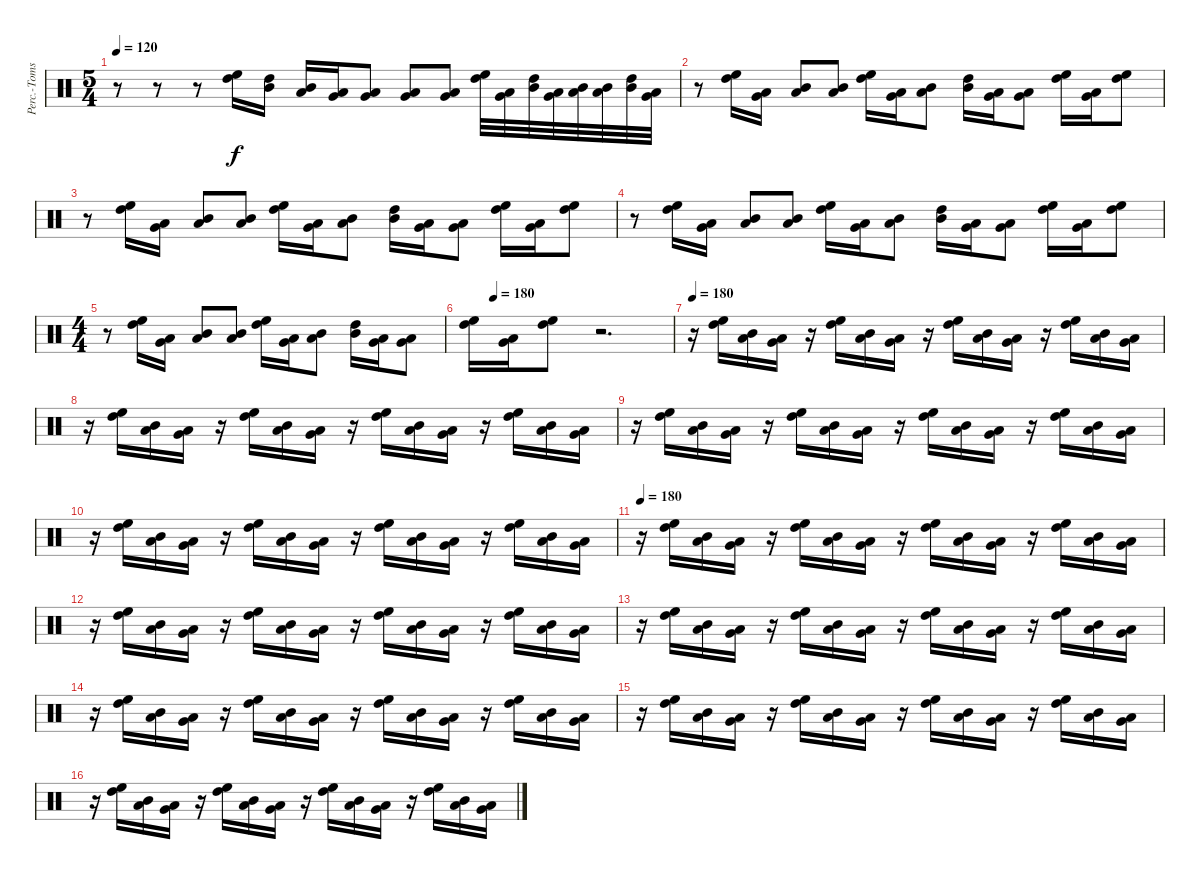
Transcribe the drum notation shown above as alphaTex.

\track ("Perc.-Toms " "Perc.-Toms") {instrument percussion}
\staff {score}
\articulation defaults
\ts (5 4)
\tempo 120
\clef neutral
\ks c
r.8{dy f} r.8 r.8 ("High Floor Tom (hit)" "High Tom (hit)").16 ("High Tom (hit)" "Mid Tom (hit)").16 ("Mid Tom (hit)" "Low Tom (hit)").16 ("Low Tom (hit)" "Very Low Tom (hit)").16 ("Very Low Tom (hit)" "Low Floor Tom (hit)").8 ("Very Low Tom (hit)" "Low Floor Tom (hit)").8 ("Very Low Tom (hit)" "Low Floor Tom (hit)").8 ("High Floor Tom (hit)" "High Tom (hit)").32 ("Very Low Tom (hit)" "Low Floor Tom (hit)").32 ("High Tom (hit)" "Mid Tom (hit)").32 ("Low Tom (hit)" "Very Low Tom (hit)").32 ("Mid Tom (hit)" "Low Tom (hit)").32 ("Low Tom (hit)" "Mid Tom (hit)").32 ("High Tom (hit)" "Mid Tom (hit)").32 ("Very Low Tom (hit)" "Low Floor Tom (hit)").32 |
r.8 ("High Floor Tom (hit)" "High Tom (hit)").16 ("Very Low Tom (hit)" "Low Floor Tom (hit)").16 ("Mid Tom (hit)" "Low Tom (hit)").8 ("Mid Tom (hit)" "Low Tom (hit)").8 ("High Floor Tom (hit)" "High Tom (hit)").16 ("Low Tom (hit)" "Very Low Tom (hit)").16 ("Mid Tom (hit)" "Low Tom (hit)").8 ("High Tom (hit)" "Mid Tom (hit)").16 ("Very Low Tom (hit)" "Low Floor Tom (hit)").16 ("Low Tom (hit)" "Very Low Tom (hit)").8 ("High Floor Tom (hit)" "High Tom (hit)").16 ("Very Low Tom (hit)" "Low Floor Tom (hit)").16 ("High Floor Tom (hit)" "High Tom (hit)").8 |
r.8 ("High Floor Tom (hit)" "High Tom (hit)").16 ("Very Low Tom (hit)" "Low Floor Tom (hit)").16 ("Mid Tom (hit)" "Low Tom (hit)").8 ("Mid Tom (hit)" "Low Tom (hit)").8 ("High Floor Tom (hit)" "High Tom (hit)").16 ("Low Tom (hit)" "Very Low Tom (hit)").16 ("Mid Tom (hit)" "Low Tom (hit)").8 ("High Tom (hit)" "Mid Tom (hit)").16 ("Very Low Tom (hit)" "Low Floor Tom (hit)").16 ("Low Tom (hit)" "Very Low Tom (hit)").8 ("High Floor Tom (hit)" "High Tom (hit)").16 ("Very Low Tom (hit)" "Low Floor Tom (hit)").16 ("High Floor Tom (hit)" "High Tom (hit)").8 |
r.8 ("High Floor Tom (hit)" "High Tom (hit)").16 ("Very Low Tom (hit)" "Low Floor Tom (hit)").16 ("Mid Tom (hit)" "Low Tom (hit)").8 ("Mid Tom (hit)" "Low Tom (hit)").8 ("High Floor Tom (hit)" "High Tom (hit)").16 ("Low Tom (hit)" "Very Low Tom (hit)").16 ("Mid Tom (hit)" "Low Tom (hit)").8 ("High Tom (hit)" "Mid Tom (hit)").16 ("Very Low Tom (hit)" "Low Floor Tom (hit)").16 ("Low Tom (hit)" "Very Low Tom (hit)").8 ("High Floor Tom (hit)" "High Tom (hit)").16 ("Very Low Tom (hit)" "Low Floor Tom (hit)").16 ("High Floor Tom (hit)" "High Tom (hit)").8 |
\ts (4 4)
r.8 ("High Floor Tom (hit)" "High Tom (hit)").16 ("Very Low Tom (hit)" "Low Floor Tom (hit)").16 ("Mid Tom (hit)" "Low Tom (hit)").8 ("Mid Tom (hit)" "Low Tom (hit)").8 ("High Floor Tom (hit)" "High Tom (hit)").16 ("Low Tom (hit)" "Very Low Tom (hit)").16 ("Mid Tom (hit)" "Low Tom (hit)").8 ("High Tom (hit)" "Mid Tom (hit)").16 ("Very Low Tom (hit)" "Low Floor Tom (hit)").16 ("Low Tom (hit)" "Very Low Tom (hit)").8 |
\tempo (180 0.125)
("High Floor Tom (hit)" "High Tom (hit)").16 ("Very Low Tom (hit)" "Low Floor Tom (hit)").16 ("High Floor Tom (hit)" "High Tom (hit)").8 r.2{d} |
\tempo 180
r.16 ("High Floor Tom (hit)" "High Tom (hit)").16 ("Mid Tom (hit)" "Low Tom (hit)").16 ("Very Low Tom (hit)" "Low Floor Tom (hit)").16 r.16 ("High Floor Tom (hit)" "High Tom (hit)").16 ("Mid Tom (hit)" "Low Tom (hit)").16 ("Very Low Tom (hit)" "Low Floor Tom (hit)").16 r.16 ("High Floor Tom (hit)" "High Tom (hit)").16 ("Mid Tom (hit)" "Low Tom (hit)").16 ("Very Low Tom (hit)" "Low Floor Tom (hit)").16 r.16 ("High Floor Tom (hit)" "High Tom (hit)").16 ("Mid Tom (hit)" "Low Tom (hit)").16 ("Very Low Tom (hit)" "Low Floor Tom (hit)").16 |
r.16 ("High Floor Tom (hit)" "High Tom (hit)").16 ("Mid Tom (hit)" "Low Tom (hit)").16 ("Very Low Tom (hit)" "Low Floor Tom (hit)").16 r.16 ("High Floor Tom (hit)" "High Tom (hit)").16 ("Mid Tom (hit)" "Low Tom (hit)").16 ("Very Low Tom (hit)" "Low Floor Tom (hit)").16 r.16 ("High Floor Tom (hit)" "High Tom (hit)").16 ("Mid Tom (hit)" "Low Tom (hit)").16 ("Very Low Tom (hit)" "Low Floor Tom (hit)").16 r.16 ("High Floor Tom (hit)" "High Tom (hit)").16 ("Mid Tom (hit)" "Low Tom (hit)").16 ("Very Low Tom (hit)" "Low Floor Tom (hit)").16 |
r.16 ("High Floor Tom (hit)" "High Tom (hit)").16 ("Mid Tom (hit)" "Low Tom (hit)").16 ("Very Low Tom (hit)" "Low Floor Tom (hit)").16 r.16 ("High Floor Tom (hit)" "High Tom (hit)").16 ("Mid Tom (hit)" "Low Tom (hit)").16 ("Very Low Tom (hit)" "Low Floor Tom (hit)").16 r.16 ("High Floor Tom (hit)" "High Tom (hit)").16 ("Mid Tom (hit)" "Low Tom (hit)").16 ("Very Low Tom (hit)" "Low Floor Tom (hit)").16 r.16 ("High Floor Tom (hit)" "High Tom (hit)").16 ("Mid Tom (hit)" "Low Tom (hit)").16 ("Very Low Tom (hit)" "Low Floor Tom (hit)").16 |
r.16 ("High Floor Tom (hit)" "High Tom (hit)").16 ("Mid Tom (hit)" "Low Tom (hit)").16 ("Very Low Tom (hit)" "Low Floor Tom (hit)").16 r.16 ("High Floor Tom (hit)" "High Tom (hit)").16 ("Mid Tom (hit)" "Low Tom (hit)").16 ("Very Low Tom (hit)" "Low Floor Tom (hit)").16 r.16 ("High Floor Tom (hit)" "High Tom (hit)").16 ("Mid Tom (hit)" "Low Tom (hit)").16 ("Very Low Tom (hit)" "Low Floor Tom (hit)").16 r.16 ("High Floor Tom (hit)" "High Tom (hit)").16 ("Mid Tom (hit)" "Low Tom (hit)").16 ("Very Low Tom (hit)" "Low Floor Tom (hit)").16 |
\tempo 180
r.16 ("High Floor Tom (hit)" "High Tom (hit)").16 ("Mid Tom (hit)" "Low Tom (hit)").16 ("Very Low Tom (hit)" "Low Floor Tom (hit)").16 r.16 ("High Floor Tom (hit)" "High Tom (hit)").16 ("Mid Tom (hit)" "Low Tom (hit)").16 ("Very Low Tom (hit)" "Low Floor Tom (hit)").16 r.16 ("High Floor Tom (hit)" "High Tom (hit)").16 ("Mid Tom (hit)" "Low Tom (hit)").16 ("Very Low Tom (hit)" "Low Floor Tom (hit)").16 r.16 ("High Floor Tom (hit)" "High Tom (hit)").16 ("Mid Tom (hit)" "Low Tom (hit)").16 ("Very Low Tom (hit)" "Low Floor Tom (hit)").16 |
r.16 ("High Floor Tom (hit)" "High Tom (hit)").16 ("Mid Tom (hit)" "Low Tom (hit)").16 ("Very Low Tom (hit)" "Low Floor Tom (hit)").16 r.16 ("High Floor Tom (hit)" "High Tom (hit)").16 ("Mid Tom (hit)" "Low Tom (hit)").16 ("Very Low Tom (hit)" "Low Floor Tom (hit)").16 r.16 ("High Floor Tom (hit)" "High Tom (hit)").16 ("Mid Tom (hit)" "Low Tom (hit)").16 ("Very Low Tom (hit)" "Low Floor Tom (hit)").16 r.16 ("High Floor Tom (hit)" "High Tom (hit)").16 ("Mid Tom (hit)" "Low Tom (hit)").16 ("Very Low Tom (hit)" "Low Floor Tom (hit)").16 |
r.16 ("High Floor Tom (hit)" "High Tom (hit)").16 ("Mid Tom (hit)" "Low Tom (hit)").16 ("Very Low Tom (hit)" "Low Floor Tom (hit)").16 r.16 ("High Floor Tom (hit)" "High Tom (hit)").16 ("Mid Tom (hit)" "Low Tom (hit)").16 ("Very Low Tom (hit)" "Low Floor Tom (hit)").16 r.16 ("High Floor Tom (hit)" "High Tom (hit)").16 ("Mid Tom (hit)" "Low Tom (hit)").16 ("Very Low Tom (hit)" "Low Floor Tom (hit)").16 r.16 ("High Floor Tom (hit)" "High Tom (hit)").16 ("Mid Tom (hit)" "Low Tom (hit)").16 ("Very Low Tom (hit)" "Low Floor Tom (hit)").16 |
r.16 ("High Floor Tom (hit)" "High Tom (hit)").16 ("Mid Tom (hit)" "Low Tom (hit)").16 ("Very Low Tom (hit)" "Low Floor Tom (hit)").16 r.16 ("High Floor Tom (hit)" "High Tom (hit)").16 ("Mid Tom (hit)" "Low Tom (hit)").16 ("Very Low Tom (hit)" "Low Floor Tom (hit)").16 r.16 ("High Floor Tom (hit)" "High Tom (hit)").16 ("Mid Tom (hit)" "Low Tom (hit)").16 ("Very Low Tom (hit)" "Low Floor Tom (hit)").16 r.16 ("High Floor Tom (hit)" "High Tom (hit)").16 ("Mid Tom (hit)" "Low Tom (hit)").16 ("Very Low Tom (hit)" "Low Floor Tom (hit)").16 |
r.16 ("High Floor Tom (hit)" "High Tom (hit)").16 ("Mid Tom (hit)" "Low Tom (hit)").16 ("Very Low Tom (hit)" "Low Floor Tom (hit)").16 r.16 ("High Floor Tom (hit)" "High Tom (hit)").16 ("Mid Tom (hit)" "Low Tom (hit)").16 ("Very Low Tom (hit)" "Low Floor Tom (hit)").16 r.16 ("High Floor Tom (hit)" "High Tom (hit)").16 ("Mid Tom (hit)" "Low Tom (hit)").16 ("Very Low Tom (hit)" "Low Floor Tom (hit)").16 r.16 ("High Floor Tom (hit)" "High Tom (hit)").16 ("Mid Tom (hit)" "Low Tom (hit)").16 ("Very Low Tom (hit)" "Low Floor Tom (hit)").16 |
r.16 ("High Floor Tom (hit)" "High Tom (hit)").16 ("Mid Tom (hit)" "Low Tom (hit)").16 ("Very Low Tom (hit)" "Low Floor Tom (hit)").16 r.16 ("High Floor Tom (hit)" "High Tom (hit)").16 ("Mid Tom (hit)" "Low Tom (hit)").16 ("Very Low Tom (hit)" "Low Floor Tom (hit)").16 r.16 ("High Floor Tom (hit)" "High Tom (hit)").16 ("Mid Tom (hit)" "Low Tom (hit)").16 ("Very Low Tom (hit)" "Low Floor Tom (hit)").16 r.16 ("High Floor Tom (hit)" "High Tom (hit)").16 ("Mid Tom (hit)" "Low Tom (hit)").16 ("Very Low Tom (hit)" "Low Floor Tom (hit)").16
